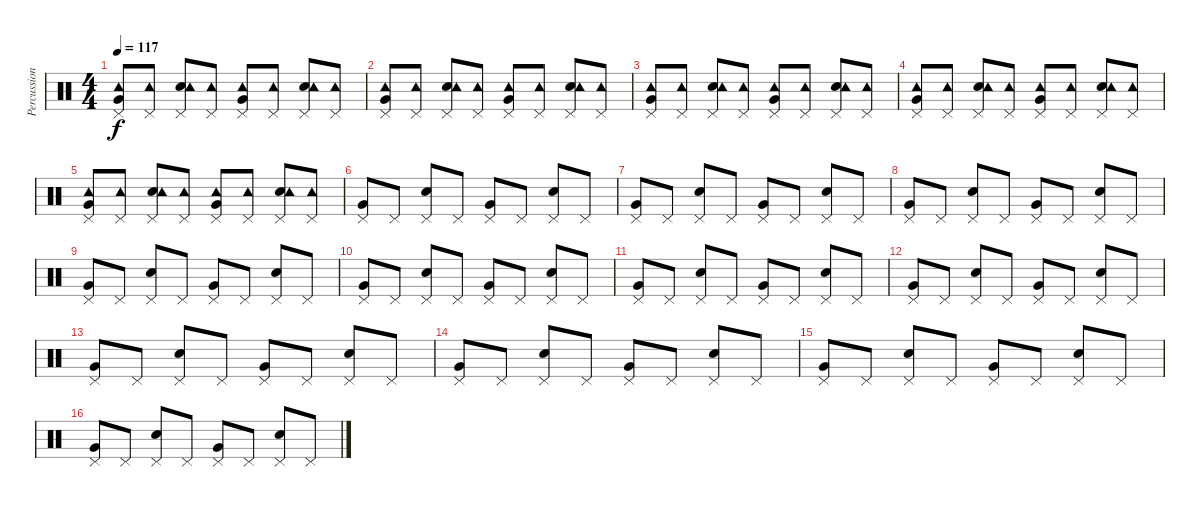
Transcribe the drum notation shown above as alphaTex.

\track ("Percussion" "Percussion") {instrument percussion}
\staff {score}
\articulation defaults
\ts (4 4)
\tempo 117
\clef neutral
\ks c
("Very Low Tom (hit)" "Pedal Hi-Hat (hit)" "Tambourine (hit)").8{dy f} ("Pedal Hi-Hat (hit)" "Tambourine (hit)").8 ("Electric Snare (hit)" "Pedal Hi-Hat (hit)" "Tambourine (hit)").8 ("Pedal Hi-Hat (hit)" "Tambourine (hit)").8 ("Very Low Tom (hit)" "Pedal Hi-Hat (hit)" "Tambourine (hit)").8 ("Pedal Hi-Hat (hit)" "Tambourine (hit)").8 ("Electric Snare (hit)" "Pedal Hi-Hat (hit)" "Tambourine (hit)").8 ("Pedal Hi-Hat (hit)" "Tambourine (hit)").8 |
("Very Low Tom (hit)" "Pedal Hi-Hat (hit)" "Tambourine (hit)").8 ("Pedal Hi-Hat (hit)" "Tambourine (hit)").8 ("Electric Snare (hit)" "Pedal Hi-Hat (hit)" "Tambourine (hit)").8 ("Pedal Hi-Hat (hit)" "Tambourine (hit)").8 ("Very Low Tom (hit)" "Pedal Hi-Hat (hit)" "Tambourine (hit)").8 ("Pedal Hi-Hat (hit)" "Tambourine (hit)").8 ("Electric Snare (hit)" "Pedal Hi-Hat (hit)" "Tambourine (hit)").8 ("Pedal Hi-Hat (hit)" "Tambourine (hit)").8 |
("Very Low Tom (hit)" "Pedal Hi-Hat (hit)" "Tambourine (hit)").8 ("Pedal Hi-Hat (hit)" "Tambourine (hit)").8 ("Electric Snare (hit)" "Pedal Hi-Hat (hit)" "Tambourine (hit)").8 ("Pedal Hi-Hat (hit)" "Tambourine (hit)").8 ("Very Low Tom (hit)" "Pedal Hi-Hat (hit)" "Tambourine (hit)").8 ("Pedal Hi-Hat (hit)" "Tambourine (hit)").8 ("Electric Snare (hit)" "Pedal Hi-Hat (hit)" "Tambourine (hit)").8 ("Pedal Hi-Hat (hit)" "Tambourine (hit)").8 |
("Very Low Tom (hit)" "Pedal Hi-Hat (hit)" "Tambourine (hit)").8 ("Pedal Hi-Hat (hit)" "Tambourine (hit)").8 ("Electric Snare (hit)" "Pedal Hi-Hat (hit)" "Tambourine (hit)").8 ("Pedal Hi-Hat (hit)" "Tambourine (hit)").8 ("Very Low Tom (hit)" "Pedal Hi-Hat (hit)" "Tambourine (hit)").8 ("Pedal Hi-Hat (hit)" "Tambourine (hit)").8 ("Electric Snare (hit)" "Pedal Hi-Hat (hit)" "Tambourine (hit)").8 ("Pedal Hi-Hat (hit)" "Tambourine (hit)").8 |
("Very Low Tom (hit)" "Pedal Hi-Hat (hit)" "Tambourine (hit)").8 ("Pedal Hi-Hat (hit)" "Tambourine (hit)").8 ("Electric Snare (hit)" "Pedal Hi-Hat (hit)" "Tambourine (hit)").8 ("Pedal Hi-Hat (hit)" "Tambourine (hit)").8 ("Very Low Tom (hit)" "Pedal Hi-Hat (hit)" "Tambourine (hit)").8 ("Pedal Hi-Hat (hit)" "Tambourine (hit)").8 ("Electric Snare (hit)" "Pedal Hi-Hat (hit)" "Tambourine (hit)").8 ("Pedal Hi-Hat (hit)" "Tambourine (hit)").8 |
("Very Low Tom (hit)" "Pedal Hi-Hat (hit)").8 "Pedal Hi-Hat (hit)".8 ("Electric Snare (hit)" "Pedal Hi-Hat (hit)").8 "Pedal Hi-Hat (hit)".8 ("Very Low Tom (hit)" "Pedal Hi-Hat (hit)").8 "Pedal Hi-Hat (hit)".8 ("Electric Snare (hit)" "Pedal Hi-Hat (hit)").8 "Pedal Hi-Hat (hit)".8 |
("Very Low Tom (hit)" "Pedal Hi-Hat (hit)").8 "Pedal Hi-Hat (hit)".8 ("Electric Snare (hit)" "Pedal Hi-Hat (hit)").8 "Pedal Hi-Hat (hit)".8 ("Very Low Tom (hit)" "Pedal Hi-Hat (hit)").8 "Pedal Hi-Hat (hit)".8 ("Electric Snare (hit)" "Pedal Hi-Hat (hit)").8 "Pedal Hi-Hat (hit)".8 |
("Very Low Tom (hit)" "Pedal Hi-Hat (hit)").8 "Pedal Hi-Hat (hit)".8 ("Electric Snare (hit)" "Pedal Hi-Hat (hit)").8 "Pedal Hi-Hat (hit)".8 ("Very Low Tom (hit)" "Pedal Hi-Hat (hit)").8 "Pedal Hi-Hat (hit)".8 ("Electric Snare (hit)" "Pedal Hi-Hat (hit)").8 "Pedal Hi-Hat (hit)".8 |
("Very Low Tom (hit)" "Pedal Hi-Hat (hit)").8 "Pedal Hi-Hat (hit)".8 ("Electric Snare (hit)" "Pedal Hi-Hat (hit)").8 "Pedal Hi-Hat (hit)".8 ("Very Low Tom (hit)" "Pedal Hi-Hat (hit)").8 "Pedal Hi-Hat (hit)".8 ("Electric Snare (hit)" "Pedal Hi-Hat (hit)").8 "Pedal Hi-Hat (hit)".8 |
("Very Low Tom (hit)" "Pedal Hi-Hat (hit)").8 "Pedal Hi-Hat (hit)".8 ("Electric Snare (hit)" "Pedal Hi-Hat (hit)").8 "Pedal Hi-Hat (hit)".8 ("Very Low Tom (hit)" "Pedal Hi-Hat (hit)").8 "Pedal Hi-Hat (hit)".8 ("Electric Snare (hit)" "Pedal Hi-Hat (hit)").8 "Pedal Hi-Hat (hit)".8 |
("Very Low Tom (hit)" "Pedal Hi-Hat (hit)").8 "Pedal Hi-Hat (hit)".8 ("Electric Snare (hit)" "Pedal Hi-Hat (hit)").8 "Pedal Hi-Hat (hit)".8 ("Very Low Tom (hit)" "Pedal Hi-Hat (hit)").8 "Pedal Hi-Hat (hit)".8 ("Electric Snare (hit)" "Pedal Hi-Hat (hit)").8 "Pedal Hi-Hat (hit)".8 |
("Very Low Tom (hit)" "Pedal Hi-Hat (hit)").8 "Pedal Hi-Hat (hit)".8 ("Electric Snare (hit)" "Pedal Hi-Hat (hit)").8 "Pedal Hi-Hat (hit)".8 ("Very Low Tom (hit)" "Pedal Hi-Hat (hit)").8 "Pedal Hi-Hat (hit)".8 ("Electric Snare (hit)" "Pedal Hi-Hat (hit)").8 "Pedal Hi-Hat (hit)".8 |
("Very Low Tom (hit)" "Pedal Hi-Hat (hit)").8 "Pedal Hi-Hat (hit)".8 ("Electric Snare (hit)" "Pedal Hi-Hat (hit)").8 "Pedal Hi-Hat (hit)".8 ("Very Low Tom (hit)" "Pedal Hi-Hat (hit)").8 "Pedal Hi-Hat (hit)".8 ("Electric Snare (hit)" "Pedal Hi-Hat (hit)").8 "Pedal Hi-Hat (hit)".8 |
("Very Low Tom (hit)" "Pedal Hi-Hat (hit)").8 "Pedal Hi-Hat (hit)".8 ("Electric Snare (hit)" "Pedal Hi-Hat (hit)").8 "Pedal Hi-Hat (hit)".8 ("Very Low Tom (hit)" "Pedal Hi-Hat (hit)").8 "Pedal Hi-Hat (hit)".8 ("Electric Snare (hit)" "Pedal Hi-Hat (hit)").8 "Pedal Hi-Hat (hit)".8 |
("Very Low Tom (hit)" "Pedal Hi-Hat (hit)").8 "Pedal Hi-Hat (hit)".8 ("Electric Snare (hit)" "Pedal Hi-Hat (hit)").8 "Pedal Hi-Hat (hit)".8 ("Very Low Tom (hit)" "Pedal Hi-Hat (hit)").8 "Pedal Hi-Hat (hit)".8 ("Electric Snare (hit)" "Pedal Hi-Hat (hit)").8 "Pedal Hi-Hat (hit)".8 |
("Very Low Tom (hit)" "Pedal Hi-Hat (hit)").8 "Pedal Hi-Hat (hit)".8 ("Electric Snare (hit)" "Pedal Hi-Hat (hit)").8 "Pedal Hi-Hat (hit)".8 ("Very Low Tom (hit)" "Pedal Hi-Hat (hit)").8 "Pedal Hi-Hat (hit)".8 ("Electric Snare (hit)" "Pedal Hi-Hat (hit)").8 "Pedal Hi-Hat (hit)".8
